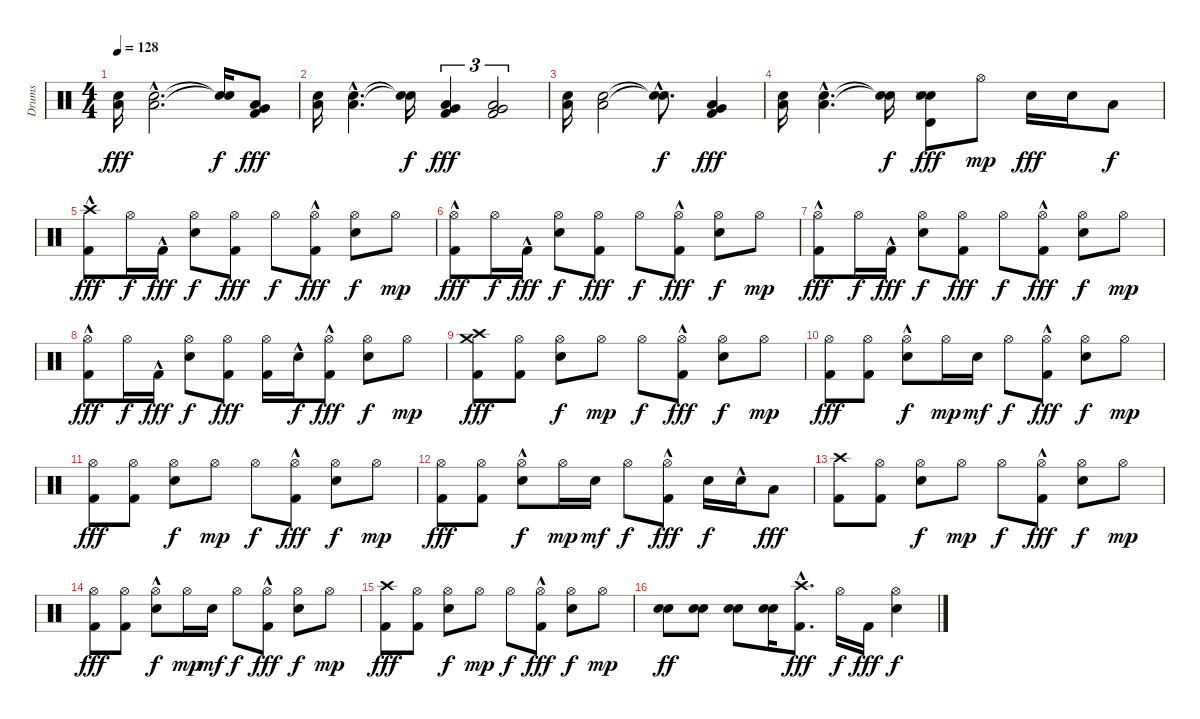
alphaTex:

\track ("Drums" "Drums") {instrument percussion}
\staff {score}
\articulation defaults
\ts (4 4)
\tempo 128
\clef neutral
\ks c
("Snare (hit) 2" "Low Floor Tom (hit)").16{dy fff} ("Snare (hit) 2"{hac} "Low Floor Tom (hit)"{hac}).2{d} ("Snare (hit)"{t} "Snare (hit)"{t}).16{dy f} ("Very Low Tom (hit)" "Low Floor Tom (hit)" "Kick (hit) 2").8{dy fff} |
("Snare (hit) 2" "Low Floor Tom (hit)").16 ("Snare (hit) 2"{hac} "Low Floor Tom (hit)"{hac}).4{d} ("Snare (hit)"{t} "Snare (hit)"{t}).16{dy f} ("Very Low Tom (hit)" "Low Floor Tom (hit)" "Kick (hit) 2").4{tu (3 2) dy fff} ("Very Low Tom (hit)" "Low Floor Tom (hit)" "Kick (hit) 2").2{tu (3 2)} |
("Snare (hit) 2" "Low Floor Tom (hit)").16 ("Snare (hit) 2" "Low Floor Tom (hit)").2 ("Snare (hit)"{hac t} "Snare (hit)"{hac t}).8{d dy f} ("Very Low Tom (hit)" "Low Floor Tom (hit)" "Kick (hit) 2").4{dy fff} |
("Snare (hit) 2" "Low Floor Tom (hit)").16 ("Snare (hit) 2"{hac} "Low Floor Tom (hit)"{hac}).4{d} ("Snare (hit)"{t} "Snare (hit)"{t}).16{dy f} ("Electric Snare (hit)" "Snare (hit) 2" "Timbale high (hit)" "Metronome (hit)").8{dy fff} "Hi-Hat (open)".8{dy mp} "Snare (hit) 2".16{dy fff} "Snare (hit) 2".16 "Low Tom (hit)".8{dy f} |
("Crash high (hit)" "Kick (hit) 2"{hac}).8{dy fff} "Hi-Hat (open)".16{dy f} "Kick (hit) 2"{hac}.16{dy fff} ("Hi-Hat (open)" "Snare (hit) 2").8{dy f} ("Hi-Hat (open)" "Kick (hit) 2").8{dy fff} "Hi-Hat (open)".8{dy f} ("Hi-Hat (open)" "Kick (hit) 2"{hac}).8{dy fff} ("Hi-Hat (open)" "Snare (hit) 2").8{dy f} "Hi-Hat (open)".8{dy mp} |
("Hi-Hat (open)" "Kick (hit) 2"{hac}).8{dy fff} "Hi-Hat (open)".16{dy f} "Kick (hit) 2"{hac}.16{dy fff} ("Hi-Hat (open)" "Snare (hit) 2").8{dy f} ("Hi-Hat (open)" "Kick (hit) 2").8{dy fff} "Hi-Hat (open)".8{dy f} ("Hi-Hat (open)" "Kick (hit) 2"{hac}).8{dy fff} ("Hi-Hat (open)" "Snare (hit) 2").8{dy f} "Hi-Hat (open)".8{dy mp} |
("Hi-Hat (open)" "Kick (hit) 2"{hac}).8{dy fff} "Hi-Hat (open)".16{dy f} "Kick (hit) 2"{hac}.16{dy fff} ("Hi-Hat (open)" "Snare (hit) 2").8{dy f} ("Hi-Hat (open)" "Kick (hit) 2").8{dy fff} "Hi-Hat (open)".8{dy f} ("Hi-Hat (open)" "Kick (hit) 2"{hac}).8{dy fff} ("Hi-Hat (open)" "Snare (hit) 2").8{dy f} "Hi-Hat (open)".8{dy mp} |
("Hi-Hat (open)" "Kick (hit) 2"{hac}).8{dy fff} "Hi-Hat (open)".16{dy f} "Kick (hit) 2"{hac}.16{dy fff} ("Hi-Hat (open)" "Snare (hit) 2").8{dy f} ("Hi-Hat (open)" "Kick (hit) 2").8{dy fff} ("Hi-Hat (open)" "Kick (hit) 2").16 "Snare (hit) 2"{hac}.16{dy f} ("Hi-Hat (open)" "Kick (hit) 2"{hac}).8{dy fff} ("Hi-Hat (open)" "Snare (hit) 2").8{dy f} "Hi-Hat (open)".8{dy mp} |
("Crash high (hit)" "Crash medium (hit)" "Kick (hit) 2").8{dy fff} ("Hi-Hat (open)" "Kick (hit) 2").8 ("Hi-Hat (open)" "Snare (hit) 2").8{dy f} "Hi-Hat (open)".8{dy mp} "Hi-Hat (open)".8{dy f} ("Hi-Hat (open)" "Kick (hit) 2"{hac}).8{dy fff} ("Hi-Hat (open)" "Snare (hit) 2").8{dy f} "Hi-Hat (open)".8{dy mp} |
("Hi-Hat (open)" "Kick (hit) 2").8{dy fff} ("Hi-Hat (open)" "Kick (hit) 2").8 ("Hi-Hat (open)" "Snare (hit) 2"{hac}).8{dy f} "Hi-Hat (open)".16{dy mp} "Snare (hit) 2".16{dy mf} "Hi-Hat (open)".8{dy f} ("Hi-Hat (open)" "Kick (hit) 2"{hac}).8{dy fff} ("Hi-Hat (open)" "Snare (hit) 2").8{dy f} "Hi-Hat (open)".8{dy mp} |
("Hi-Hat (open)" "Kick (hit) 2").8{dy fff} ("Hi-Hat (open)" "Kick (hit) 2").8 ("Hi-Hat (open)" "Snare (hit) 2").8{dy f} "Hi-Hat (open)".8{dy mp} "Hi-Hat (open)".8{dy f} ("Hi-Hat (open)" "Kick (hit) 2"{hac}).8{dy fff} ("Hi-Hat (open)" "Snare (hit) 2").8{dy f} "Hi-Hat (open)".8{dy mp} |
("Hi-Hat (open)" "Kick (hit) 2").8{dy fff} ("Hi-Hat (open)" "Kick (hit) 2").8 ("Hi-Hat (open)" "Snare (hit) 2"{hac}).8{dy f} "Hi-Hat (open)".16{dy mp} "Snare (hit) 2".16{dy mf} "Hi-Hat (open)".8{dy f} ("Hi-Hat (open)"{hac} "Kick (hit) 2"{hac}).8{dy fff} "Snare (hit) 2".16{dy f} "Snare (hit) 2"{hac}.16 "Low Tom (hit)".8{dy fff} |
("Crash high (hit)" "Kick (hit) 2").8 ("Hi-Hat (open)" "Kick (hit) 2").8 ("Hi-Hat (open)" "Snare (hit) 2").8{dy f} "Hi-Hat (open)".8{dy mp} "Hi-Hat (open)".8{dy f} ("Hi-Hat (open)" "Kick (hit) 2"{hac}).8{dy fff} ("Hi-Hat (open)" "Snare (hit) 2").8{dy f} "Hi-Hat (open)".8{dy mp} |
("Hi-Hat (open)" "Kick (hit) 2").8{dy fff} ("Hi-Hat (open)" "Kick (hit) 2").8 ("Hi-Hat (open)" "Snare (hit) 2"{hac}).8{dy f} "Hi-Hat (open)".16{dy mp} "Snare (hit) 2".16{dy mf} "Hi-Hat (open)".8{dy f} ("Hi-Hat (open)" "Kick (hit) 2"{hac}).8{dy fff} ("Hi-Hat (open)" "Snare (hit) 2").8{dy f} "Hi-Hat (open)".8{dy mp} |
("Crash high (hit)" "Kick (hit) 2").8{dy fff} ("Hi-Hat (open)" "Kick (hit) 2").8 ("Hi-Hat (open)" "Snare (hit) 2").8{dy f} "Hi-Hat (open)".8{dy mp} "Hi-Hat (open)".8{dy f} ("Hi-Hat (open)" "Kick (hit) 2"{hac}).8{dy fff} ("Hi-Hat (open)" "Snare (hit) 2").8{dy f} "Hi-Hat (open)".8{dy mp} |
("Snare (hit) 2" "Electric Snare (hit)").8{dy ff} ("Snare (hit) 2" "Electric Snare (hit)").8 ("Snare (hit) 2" "Electric Snare (hit)").8 ("Snare (hit) 2" "Electric Snare (hit)").16 ("Crash high (hit)"{hac} "Kick (hit) 2"{hac}).8{d dy fff} "Hi-Hat (open)".16{dy f} "Kick (hit) 2".16{dy fff} ("Hi-Hat (open)" "Snare (hit) 2").4{dy f}
